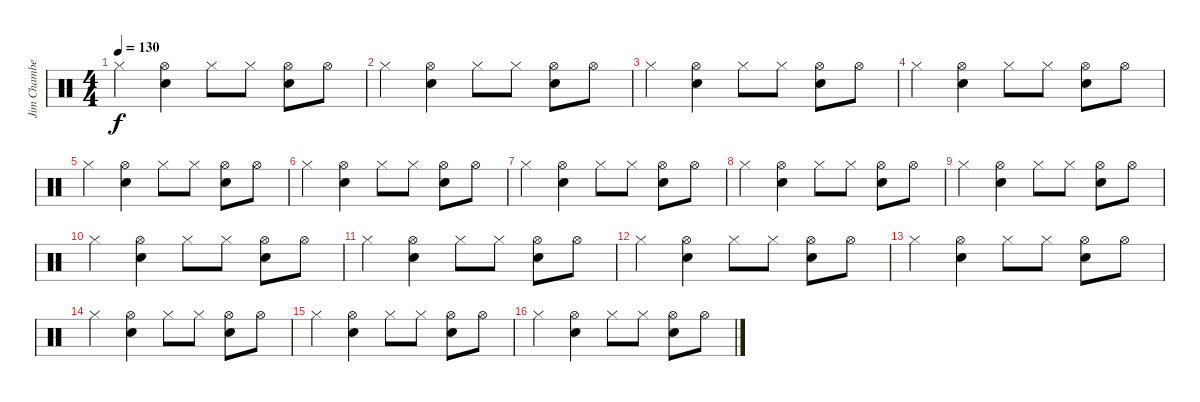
\track ("Jim Chamberlin (Drums)" "Jim Chambe") {instrument percussion}
\staff {score}
\articulation defaults
\ts (4 4)
\tempo 130
\clef neutral
\ks c "Hi-Hat (closed)".4{dy f}
("Snare (hit) 2" "Hi-Hat (open)").4 "Hi-Hat (closed)".8 "Hi-Hat (closed)".8 ("Snare (hit) 2" "Hi-Hat (open)").8 "Hi-Hat (open)".8 |
"Hi-Hat (closed)".4 ("Snare (hit) 2" "Hi-Hat (open)").4 "Hi-Hat (closed)".8 "Hi-Hat (closed)".8 ("Snare (hit) 2" "Hi-Hat (open)").8 "Hi-Hat (open)".8 |
"Hi-Hat (closed)".4 ("Snare (hit) 2" "Hi-Hat (open)").4 "Hi-Hat (closed)".8 "Hi-Hat (closed)".8 ("Snare (hit) 2" "Hi-Hat (open)").8 "Hi-Hat (open)".8 |
"Hi-Hat (closed)".4 ("Snare (hit) 2" "Hi-Hat (open)").4 "Hi-Hat (closed)".8 "Hi-Hat (closed)".8 ("Snare (hit) 2" "Hi-Hat (open)").8 "Hi-Hat (open)".8 |
"Hi-Hat (closed)".4 ("Snare (hit) 2" "Hi-Hat (open)").4 "Hi-Hat (closed)".8 "Hi-Hat (closed)".8 ("Snare (hit) 2" "Hi-Hat (open)").8 "Hi-Hat (open)".8 |
"Hi-Hat (closed)".4 ("Snare (hit) 2" "Hi-Hat (open)").4 "Hi-Hat (closed)".8 "Hi-Hat (closed)".8 ("Snare (hit) 2" "Hi-Hat (open)").8 "Hi-Hat (open)".8 |
"Hi-Hat (closed)".4 ("Snare (hit) 2" "Hi-Hat (open)").4 "Hi-Hat (closed)".8 "Hi-Hat (closed)".8 ("Snare (hit) 2" "Hi-Hat (open)").8 "Hi-Hat (open)".8 |
"Hi-Hat (closed)".4 ("Snare (hit) 2" "Hi-Hat (open)").4 "Hi-Hat (closed)".8 "Hi-Hat (closed)".8 ("Snare (hit) 2" "Hi-Hat (open)").8 "Hi-Hat (open)".8 |
"Hi-Hat (closed)".4 ("Snare (hit) 2" "Hi-Hat (open)").4 "Hi-Hat (closed)".8 "Hi-Hat (closed)".8 ("Snare (hit) 2" "Hi-Hat (open)").8 "Hi-Hat (open)".8 |
"Hi-Hat (closed)".4 ("Snare (hit) 2" "Hi-Hat (open)").4 "Hi-Hat (closed)".8 "Hi-Hat (closed)".8 ("Snare (hit) 2" "Hi-Hat (open)").8 "Hi-Hat (open)".8 |
"Hi-Hat (closed)".4 ("Snare (hit) 2" "Hi-Hat (open)").4 "Hi-Hat (closed)".8 "Hi-Hat (closed)".8 ("Snare (hit) 2" "Hi-Hat (open)").8 "Hi-Hat (open)".8 |
"Hi-Hat (closed)".4 ("Snare (hit) 2" "Hi-Hat (open)").4 "Hi-Hat (closed)".8 "Hi-Hat (closed)".8 ("Snare (hit) 2" "Hi-Hat (open)").8 "Hi-Hat (open)".8 |
"Hi-Hat (closed)".4 ("Snare (hit) 2" "Hi-Hat (open)").4 "Hi-Hat (closed)".8 "Hi-Hat (closed)".8 ("Snare (hit) 2" "Hi-Hat (open)").8 "Hi-Hat (open)".8 |
"Hi-Hat (closed)".4 ("Snare (hit) 2" "Hi-Hat (open)").4 "Hi-Hat (closed)".8 "Hi-Hat (closed)".8 ("Snare (hit) 2" "Hi-Hat (open)").8 "Hi-Hat (open)".8 |
"Hi-Hat (closed)".4 ("Snare (hit) 2" "Hi-Hat (open)").4 "Hi-Hat (closed)".8 "Hi-Hat (closed)".8 ("Snare (hit) 2" "Hi-Hat (open)").8 "Hi-Hat (open)".8 |
"Hi-Hat (closed)".4 ("Snare (hit) 2" "Hi-Hat (open)").4 "Hi-Hat (closed)".8 "Hi-Hat (closed)".8 ("Snare (hit) 2" "Hi-Hat (open)").8 "Hi-Hat (open)".8
